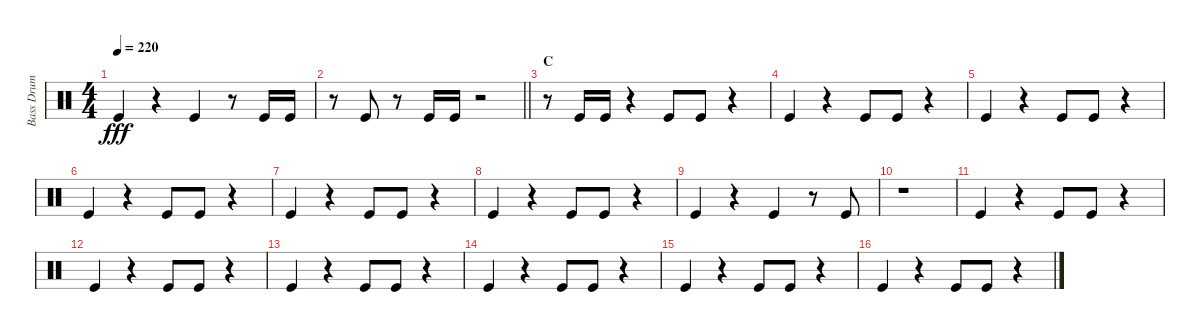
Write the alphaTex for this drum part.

\track ("Bass Drum" "Bass Drum") {instrument percussion}
\staff {score}
\articulation defaults
\ts (4 4)
\tempo 220
\clef neutral
\ks c "Kick (hit)".4{dy fff}
r.4 "Kick (hit)".4 r.8 "Kick (hit)".16 "Kick (hit)".16 |
\barLineRight lightlight
r.8 "Kick (hit)".8 r.8 "Kick (hit)".16 "Kick (hit)".16 r.2 |
\section ("" "C")
r.8 "Kick (hit)".16 "Kick (hit)".16 r.4 "Kick (hit)".8 "Kick (hit)".8 r.4 |
"Kick (hit)".4 r.4 "Kick (hit)".8 "Kick (hit)".8 r.4 |
"Kick (hit)".4 r.4 "Kick (hit)".8 "Kick (hit)".8 r.4 |
"Kick (hit)".4 r.4 "Kick (hit)".8 "Kick (hit)".8 r.4 |
"Kick (hit)".4 r.4 "Kick (hit)".8 "Kick (hit)".8 r.4 |
"Kick (hit)".4 r.4 "Kick (hit)".8 "Kick (hit)".8 r.4 |
"Kick (hit)".4 r.4 "Kick (hit)".4 r.8 "Kick (hit)".8 |
r.1 |
"Kick (hit)".4 r.4 "Kick (hit)".8 "Kick (hit)".8 r.4 |
"Kick (hit)".4 r.4 "Kick (hit)".8 "Kick (hit)".8 r.4 |
"Kick (hit)".4 r.4 "Kick (hit)".8 "Kick (hit)".8 r.4 |
"Kick (hit)".4 r.4 "Kick (hit)".8 "Kick (hit)".8 r.4 |
"Kick (hit)".4 r.4 "Kick (hit)".8 "Kick (hit)".8 r.4 |
"Kick (hit)".4 r.4 "Kick (hit)".8 "Kick (hit)".8 r.4
